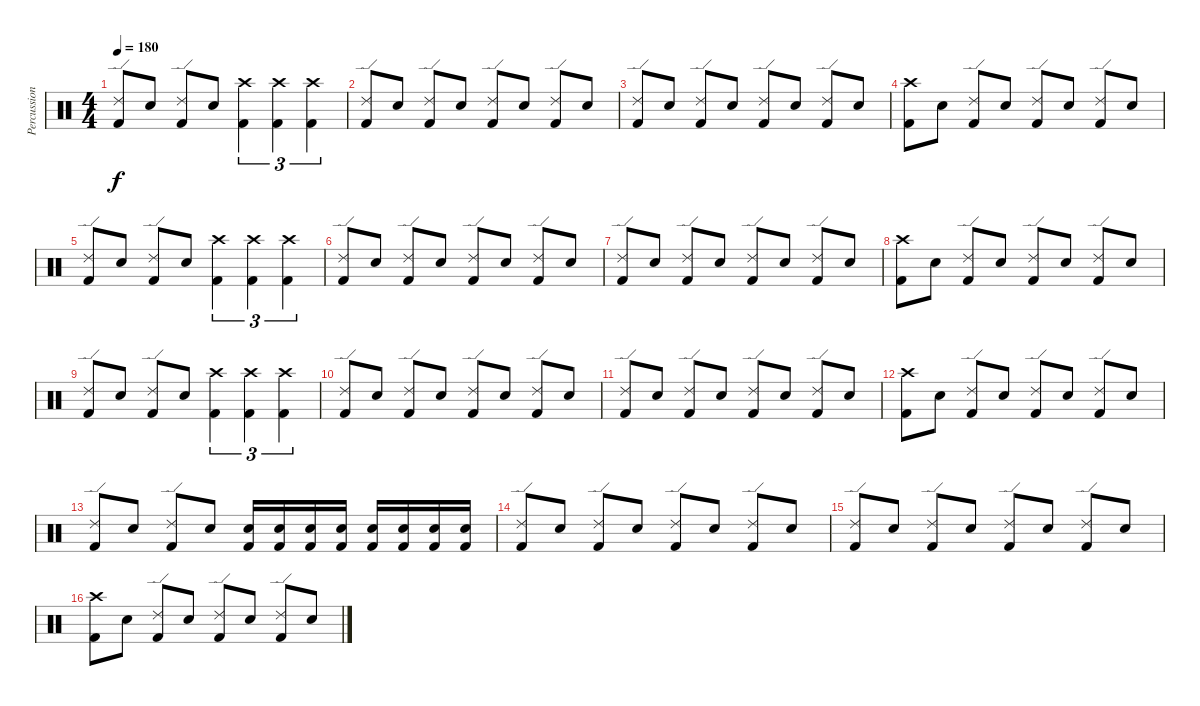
\track ("Percussion" "Percussion") {instrument percussion}
\staff {score}
\articulation defaults
\ts (4 4)
\tempo 180
\clef neutral
\ks c
("Ride (edge) 2" "Kick (hit) 2").8{dy f} "Electric Snare (hit)".8 ("Ride (edge) 2" "Kick (hit) 2").8 "Electric Snare (hit)".8 ("Crash high (hit)" "Kick (hit) 2").4{tu (3 2)} ("Crash high (hit)" "Kick (hit) 2").4{tu (3 2)} ("Crash high (hit)" "Kick (hit) 2").4{tu (3 2)} |
("Ride (edge) 2" "Kick (hit) 2").8 "Electric Snare (hit)".8 ("Ride (edge) 2" "Kick (hit) 2").8 "Electric Snare (hit)".8 ("Ride (edge) 2" "Kick (hit) 2").8 "Electric Snare (hit)".8 ("Ride (edge) 2" "Kick (hit) 2").8 "Electric Snare (hit)".8 |
("Ride (edge) 2" "Kick (hit) 2").8 "Electric Snare (hit)".8 ("Ride (edge) 2" "Kick (hit) 2").8 "Electric Snare (hit)".8 ("Ride (edge) 2" "Kick (hit) 2").8 "Electric Snare (hit)".8 ("Ride (edge) 2" "Kick (hit) 2").8 "Electric Snare (hit)".8 |
("Crash high (hit)" "Kick (hit) 2").8 "Electric Snare (hit)".8 ("Ride (edge) 2" "Kick (hit) 2").8 "Electric Snare (hit)".8 ("Ride (edge) 2" "Kick (hit) 2").8 "Electric Snare (hit)".8 ("Ride (edge) 2" "Kick (hit) 2").8 "Electric Snare (hit)".8 |
("Ride (edge) 2" "Kick (hit) 2").8 "Electric Snare (hit)".8 ("Ride (edge) 2" "Kick (hit) 2").8 "Electric Snare (hit)".8 ("Crash high (hit)" "Kick (hit) 2").4{tu (3 2)} ("Crash high (hit)" "Kick (hit) 2").4{tu (3 2)} ("Crash high (hit)" "Kick (hit) 2").4{tu (3 2)} |
("Ride (edge) 2" "Kick (hit) 2").8 "Electric Snare (hit)".8 ("Ride (edge) 2" "Kick (hit) 2").8 "Electric Snare (hit)".8 ("Ride (edge) 2" "Kick (hit) 2").8 "Electric Snare (hit)".8 ("Ride (edge) 2" "Kick (hit) 2").8 "Electric Snare (hit)".8 |
("Ride (edge) 2" "Kick (hit) 2").8 "Electric Snare (hit)".8 ("Ride (edge) 2" "Kick (hit) 2").8 "Electric Snare (hit)".8 ("Ride (edge) 2" "Kick (hit) 2").8 "Electric Snare (hit)".8 ("Ride (edge) 2" "Kick (hit) 2").8 "Electric Snare (hit)".8 |
("Crash high (hit)" "Kick (hit) 2").8 "Electric Snare (hit)".8 ("Ride (edge) 2" "Kick (hit) 2").8 "Electric Snare (hit)".8 ("Ride (edge) 2" "Kick (hit) 2").8 "Electric Snare (hit)".8 ("Ride (edge) 2" "Kick (hit) 2").8 "Electric Snare (hit)".8 |
("Ride (edge) 2" "Kick (hit) 2").8 "Electric Snare (hit)".8 ("Ride (edge) 2" "Kick (hit) 2").8 "Electric Snare (hit)".8 ("Crash high (hit)" "Kick (hit) 2").4{tu (3 2)} ("Crash high (hit)" "Kick (hit) 2").4{tu (3 2)} ("Crash high (hit)" "Kick (hit) 2").4{tu (3 2)} |
("Ride (edge) 2" "Kick (hit) 2").8 "Electric Snare (hit)".8 ("Ride (edge) 2" "Kick (hit) 2").8 "Electric Snare (hit)".8 ("Ride (edge) 2" "Kick (hit) 2").8 "Electric Snare (hit)".8 ("Ride (edge) 2" "Kick (hit) 2").8 "Electric Snare (hit)".8 |
("Ride (edge) 2" "Kick (hit) 2").8 "Electric Snare (hit)".8 ("Ride (edge) 2" "Kick (hit) 2").8 "Electric Snare (hit)".8 ("Ride (edge) 2" "Kick (hit) 2").8 "Electric Snare (hit)".8 ("Ride (edge) 2" "Kick (hit) 2").8 "Electric Snare (hit)".8 |
("Crash high (hit)" "Kick (hit) 2").8 "Electric Snare (hit)".8 ("Ride (edge) 2" "Kick (hit) 2").8 "Electric Snare (hit)".8 ("Ride (edge) 2" "Kick (hit) 2").8 "Electric Snare (hit)".8 ("Ride (edge) 2" "Kick (hit) 2").8 "Electric Snare (hit)".8 |
("Ride (edge) 2" "Kick (hit) 2").8 "Electric Snare (hit)".8 ("Ride (edge) 2" "Kick (hit) 2").8 "Electric Snare (hit)".8 ("Electric Snare (hit)" "Kick (hit) 2").16 ("Electric Snare (hit)" "Kick (hit) 2").16 ("Electric Snare (hit)" "Kick (hit) 2").16 ("Electric Snare (hit)" "Kick (hit) 2").16 ("Electric Snare (hit)" "Kick (hit) 2").16 ("Electric Snare (hit)" "Kick (hit) 2").16 ("Electric Snare (hit)" "Kick (hit) 2").16 ("Electric Snare (hit)" "Kick (hit) 2").16 |
("Ride (edge) 2" "Kick (hit) 2").8 "Electric Snare (hit)".8 ("Ride (edge) 2" "Kick (hit) 2").8 "Electric Snare (hit)".8 ("Ride (edge) 2" "Kick (hit) 2").8 "Electric Snare (hit)".8 ("Ride (edge) 2" "Kick (hit) 2").8 "Electric Snare (hit)".8 |
("Ride (edge) 2" "Kick (hit) 2").8 "Electric Snare (hit)".8 ("Ride (edge) 2" "Kick (hit) 2").8 "Electric Snare (hit)".8 ("Ride (edge) 2" "Kick (hit) 2").8 "Electric Snare (hit)".8 ("Ride (edge) 2" "Kick (hit) 2").8 "Electric Snare (hit)".8 |
("Crash high (hit)" "Kick (hit) 2").8 "Electric Snare (hit)".8 ("Ride (edge) 2" "Kick (hit) 2").8 "Electric Snare (hit)".8 ("Ride (edge) 2" "Kick (hit) 2").8 "Electric Snare (hit)".8 ("Ride (edge) 2" "Kick (hit) 2").8 "Electric Snare (hit)".8
